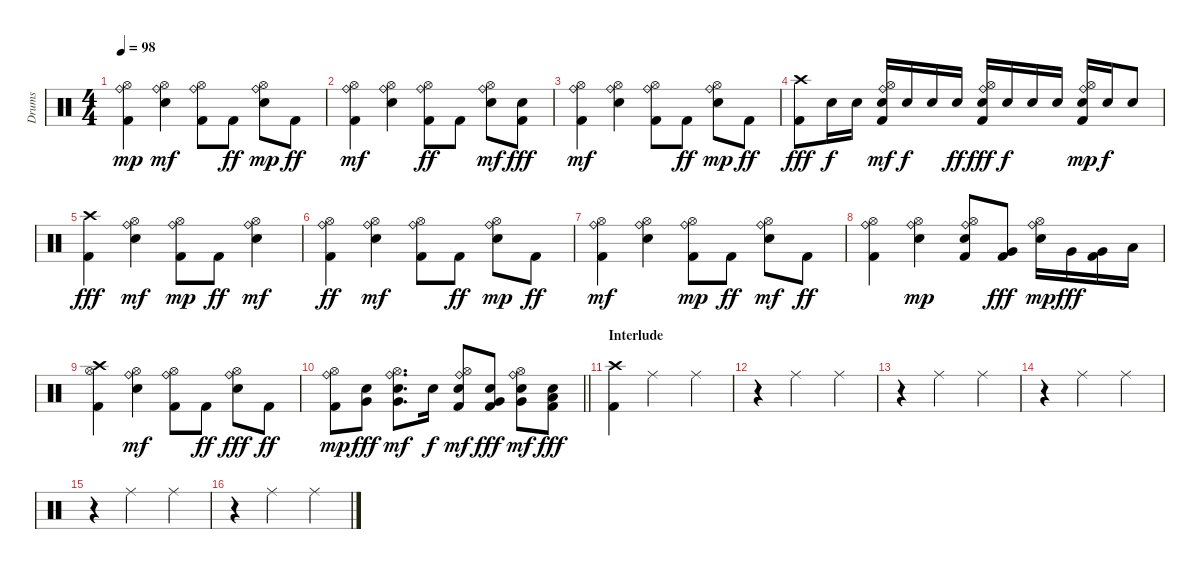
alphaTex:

\track ("Drums" "Drums") {instrument percussion}
\staff {score}
\articulation defaults
\ts (4 4)
\tempo 98
\clef neutral
\ks c
("Kick (hit) 2" "Hi-Hat (open)" "Ride (bell)").4{dy mp} ("Electric Snare (hit)" "Hi-Hat (open)" "Ride (bell)").4{dy mf} ("Kick (hit) 2" "Hi-Hat (open)" "Ride (bell)").8 "Kick (hit) 2".8{dy ff} ("Electric Snare (hit)" "Hi-Hat (open)" "Ride (bell)").8{dy mp} "Kick (hit) 2".8{dy ff} |
("Kick (hit) 2" "Hi-Hat (open)" "Ride (bell)").4{dy mf} ("Electric Snare (hit)" "Hi-Hat (open)" "Ride (bell)").4 ("Kick (hit) 2" "Hi-Hat (open)" "Ride (bell)").8{dy ff} "Kick (hit) 2".8 ("Electric Snare (hit)" "Hi-Hat (open)" "Ride (bell)").8{dy mf} ("Kick (hit) 2" "Electric Snare (hit)").8{dy fff} |
("Kick (hit) 2" "Hi-Hat (open)" "Ride (bell)").4{dy mf} ("Electric Snare (hit)" "Hi-Hat (open)" "Ride (bell)").4 ("Kick (hit) 2" "Hi-Hat (open)" "Ride (bell)").8 "Kick (hit) 2".8{dy ff} ("Electric Snare (hit)" "Hi-Hat (open)" "Ride (bell)").8{dy mp} "Kick (hit) 2".8{dy ff} |
("Kick (hit) 2" "Crash high (hit)").8{dy fff} "Electric Snare (hit)".16{dy f} "Electric Snare (hit)".16 ("Kick (hit) 2" "Electric Snare (hit)" "Hi-Hat (open)" "Ride (bell)").16{dy mf} "Electric Snare (hit)".16{dy f} "Electric Snare (hit)".16 "Electric Snare (hit)".16{dy ff} ("Kick (hit) 2" "Electric Snare (hit)" "Hi-Hat (open)" "Ride (bell)").16{dy fff} "Electric Snare (hit)".16{dy f} "Electric Snare (hit)".16 "Electric Snare (hit)".16 ("Kick (hit) 2" "Electric Snare (hit)" "Hi-Hat (open)" "Ride (bell)").16{dy mp} "Electric Snare (hit)".16{dy f} "Electric Snare (hit)".8 |
("Kick (hit) 2" "Crash high (hit)").4{dy fff} ("Electric Snare (hit)" "Hi-Hat (open)" "Ride (bell)").4{dy mf} ("Kick (hit) 2" "Hi-Hat (open)" "Ride (bell)").8{dy mp} "Kick (hit) 2".8{dy ff} ("Electric Snare (hit)" "Hi-Hat (open)" "Ride (bell)").4{dy mf} |
("Kick (hit) 2" "Hi-Hat (open)" "Ride (bell)").4{dy ff} ("Electric Snare (hit)" "Hi-Hat (open)" "Ride (bell)").4{dy mf} ("Kick (hit) 2" "Hi-Hat (open)" "Ride (bell)").8 "Kick (hit) 2".8{dy ff} ("Electric Snare (hit)" "Hi-Hat (open)" "Ride (bell)").8{dy mp} "Kick (hit) 2".8{dy ff} |
("Kick (hit) 2" "Hi-Hat (open)" "Ride (bell)").4{dy mf} ("Electric Snare (hit)" "Hi-Hat (open)" "Ride (bell)").4 ("Kick (hit) 2" "Hi-Hat (open)" "Ride (bell)").8{dy mp} "Kick (hit) 2".8{dy ff} ("Electric Snare (hit)" "Hi-Hat (open)" "Ride (bell)").8{dy mf} "Kick (hit) 2".8{dy ff} |
("Kick (hit) 2" "Hi-Hat (open)" "Ride (bell)").4 ("Electric Snare (hit)" "Hi-Hat (open)" "Ride (bell)").4{dy mp} ("Kick (hit) 2" "Electric Snare (hit)" "Hi-Hat (open)" "Ride (bell)").8 ("Kick (hit) 2" "Very Low Tom (hit)").8{dy fff} ("Electric Snare (hit)" "Hi-Hat (open)" "Ride (bell)").16{dy mp} "Very Low Tom (hit)".16{dy fff} ("Kick (hit) 2" "Very Low Tom (hit)").16 "Low Floor Tom (hit)".16 |
("Kick (hit) 2" "Hi-Hat (open)" "Crash high (hit)").4 ("Electric Snare (hit)" "Hi-Hat (open)" "Ride (bell)").4{dy mf} ("Kick (hit) 2" "Hi-Hat (open)" "Ride (bell)").8 "Kick (hit) 2".8{dy ff} ("Electric Snare (hit)" "Hi-Hat (open)" "Ride (bell)").8{dy fff} "Kick (hit) 2".8{dy ff} |
\barLineRight lightlight
("Kick (hit) 2" "Hi-Hat (open)" "Ride (bell)").8{dy mp} ("Electric Snare (hit)" "Very Low Tom (hit)").8{dy fff} ("Electric Snare (hit)" "Very Low Tom (hit)" "Hi-Hat (open)" "Ride (bell)").8{d dy mf} "Electric Snare (hit)".16{dy f} ("Kick (hit) 2" "Electric Snare (hit)" "Hi-Hat (open)" "Ride (bell)").8{dy mf} ("Kick (hit) 2" "Electric Snare (hit)" "Very Low Tom (hit)").8{dy fff} ("Electric Snare (hit)" "Very Low Tom (hit)" "Hi-Hat (open)" "Ride (bell)").8{dy mf} ("Kick (hit) 2" "Electric Snare (hit)" "Low Floor Tom (hit)").8{dy fff} |
\section ("" "Interlude")
("Kick (hit) 2" "Crash high (hit)").4 "Ride (middle)".2 "Ride (middle)".4 |
r.4 "Ride (middle)".2 "Ride (middle)".4 |
r.4 "Ride (middle)".2 "Ride (middle)".4 |
r.4 "Ride (middle)".2 "Ride (middle)".4 |
r.4 "Ride (middle)".2 "Ride (middle)".4 |
r.4 "Ride (middle)".2 "Ride (middle)".4
